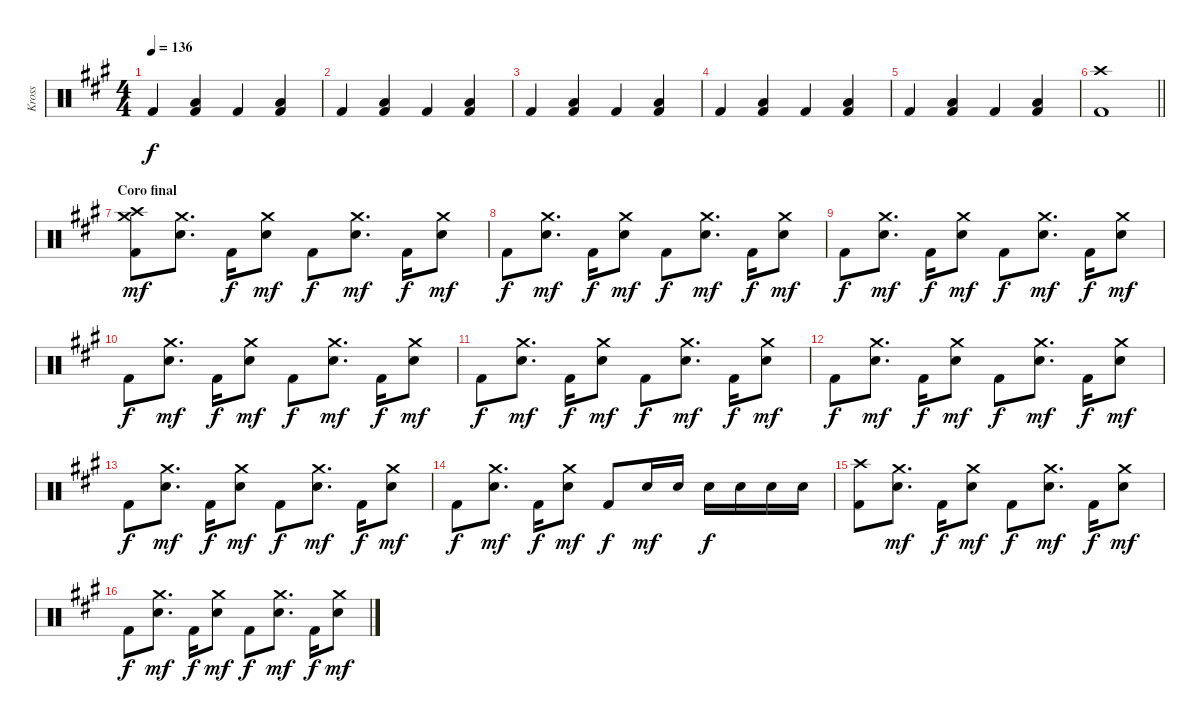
\track ("Kross" "Kross") {instrument percussion}
\staff {score}
\articulation defaults
\ts (4 4)
\tempo 136
\clef neutral
\ks a "Kick (hit) 2".4{dy f}
("Low Floor Tom (hit)" "Kick (hit) 2").4 "Kick (hit) 2".4 ("Low Floor Tom (hit)" "Kick (hit) 2").4 |
"Kick (hit) 2".4 ("Low Floor Tom (hit)" "Kick (hit) 2").4 "Kick (hit) 2".4 ("Low Floor Tom (hit)" "Kick (hit) 2").4 |
"Kick (hit) 2".4 ("Low Floor Tom (hit)" "Kick (hit) 2").4 "Kick (hit) 2".4 ("Low Floor Tom (hit)" "Kick (hit) 2").4 |
"Kick (hit) 2".4 ("Low Floor Tom (hit)" "Kick (hit) 2").4 "Kick (hit) 2".4 ("Low Floor Tom (hit)" "Kick (hit) 2").4 |
"Kick (hit) 2".4 ("Low Floor Tom (hit)" "Kick (hit) 2").4 "Kick (hit) 2".4 ("Low Floor Tom (hit)" "Kick (hit) 2").4 |
\barLineRight lightlight
("Crash high (hit)" "Kick (hit) 2").1 |
\section ("" "Coro final")
("Crash medium (hit)" "Crash high (hit)" "Kick (hit) 2").8{dy mf} ("Crash medium (hit)" "Snare (hit) 2").8{d} "Kick (hit) 2".16{dy f} ("Crash medium (hit)" "Snare (hit) 2").8{dy mf} "Kick (hit) 2".8{dy f} ("Crash medium (hit)" "Snare (hit) 2").8{d dy mf} "Kick (hit) 2".16{dy f} ("Crash medium (hit)" "Snare (hit) 2").8{dy mf} |
"Kick (hit) 2".8{dy f} ("Crash medium (hit)" "Snare (hit) 2").8{d dy mf} "Kick (hit) 2".16{dy f} ("Crash medium (hit)" "Snare (hit) 2").8{dy mf} "Kick (hit) 2".8{dy f} ("Crash medium (hit)" "Snare (hit) 2").8{d dy mf} "Kick (hit) 2".16{dy f} ("Crash medium (hit)" "Snare (hit) 2").8{dy mf} |
"Kick (hit) 2".8{dy f} ("Crash medium (hit)" "Snare (hit) 2").8{d dy mf} "Kick (hit) 2".16{dy f} ("Crash medium (hit)" "Snare (hit) 2").8{dy mf} "Kick (hit) 2".8{dy f} ("Crash medium (hit)" "Snare (hit) 2").8{d dy mf} "Kick (hit) 2".16{dy f} ("Crash medium (hit)" "Snare (hit) 2").8{dy mf} |
"Kick (hit) 2".8{dy f} ("Crash medium (hit)" "Snare (hit) 2").8{d dy mf} "Kick (hit) 2".16{dy f} ("Crash medium (hit)" "Snare (hit) 2").8{dy mf} "Kick (hit) 2".8{dy f} ("Crash medium (hit)" "Snare (hit) 2").8{d dy mf} "Kick (hit) 2".16{dy f} ("Crash medium (hit)" "Snare (hit) 2").8{dy mf} |
"Kick (hit) 2".8{dy f} ("Crash medium (hit)" "Snare (hit) 2").8{d dy mf} "Kick (hit) 2".16{dy f} ("Crash medium (hit)" "Snare (hit) 2").8{dy mf} "Kick (hit) 2".8{dy f} ("Crash medium (hit)" "Snare (hit) 2").8{d dy mf} "Kick (hit) 2".16{dy f} ("Crash medium (hit)" "Snare (hit) 2").8{dy mf} |
"Kick (hit) 2".8{dy f} ("Crash medium (hit)" "Snare (hit) 2").8{d dy mf} "Kick (hit) 2".16{dy f} ("Crash medium (hit)" "Snare (hit) 2").8{dy mf} "Kick (hit) 2".8{dy f} ("Crash medium (hit)" "Snare (hit) 2").8{d dy mf} "Kick (hit) 2".16{dy f} ("Crash medium (hit)" "Snare (hit) 2").8{dy mf} |
"Kick (hit) 2".8{dy f} ("Crash medium (hit)" "Snare (hit) 2").8{d dy mf} "Kick (hit) 2".16{dy f} ("Crash medium (hit)" "Snare (hit) 2").8{dy mf} "Kick (hit) 2".8{dy f} ("Crash medium (hit)" "Snare (hit) 2").8{d dy mf} "Kick (hit) 2".16{dy f} ("Crash medium (hit)" "Snare (hit) 2").8{dy mf} |
"Kick (hit) 2".8{dy f} ("Crash medium (hit)" "Snare (hit) 2").8{d dy mf} "Kick (hit) 2".16{dy f} ("Crash medium (hit)" "Snare (hit) 2").8{dy mf} "Kick (hit) 2".8{dy f} "Electric Snare (hit)".16{dy mf} "Electric Snare (hit)".16 "Electric Snare (hit)".16{dy f} "Electric Snare (hit)".16 "Electric Snare (hit)".16 "Electric Snare (hit)".16 |
("Crash high (hit)" "Kick (hit) 2").8 ("Crash medium (hit)" "Snare (hit) 2").8{d dy mf} "Kick (hit) 2".16{dy f} ("Crash medium (hit)" "Snare (hit) 2").8{dy mf} "Kick (hit) 2".8{dy f} ("Crash medium (hit)" "Snare (hit) 2").8{d dy mf} "Kick (hit) 2".16{dy f} ("Crash medium (hit)" "Snare (hit) 2").8{dy mf} |
"Kick (hit) 2".8{dy f} ("Crash medium (hit)" "Snare (hit) 2").8{d dy mf} "Kick (hit) 2".16{dy f} ("Crash medium (hit)" "Snare (hit) 2").8{dy mf} "Kick (hit) 2".8{dy f} ("Crash medium (hit)" "Snare (hit) 2").8{d dy mf} "Kick (hit) 2".16{dy f} ("Crash medium (hit)" "Snare (hit) 2").8{dy mf}
